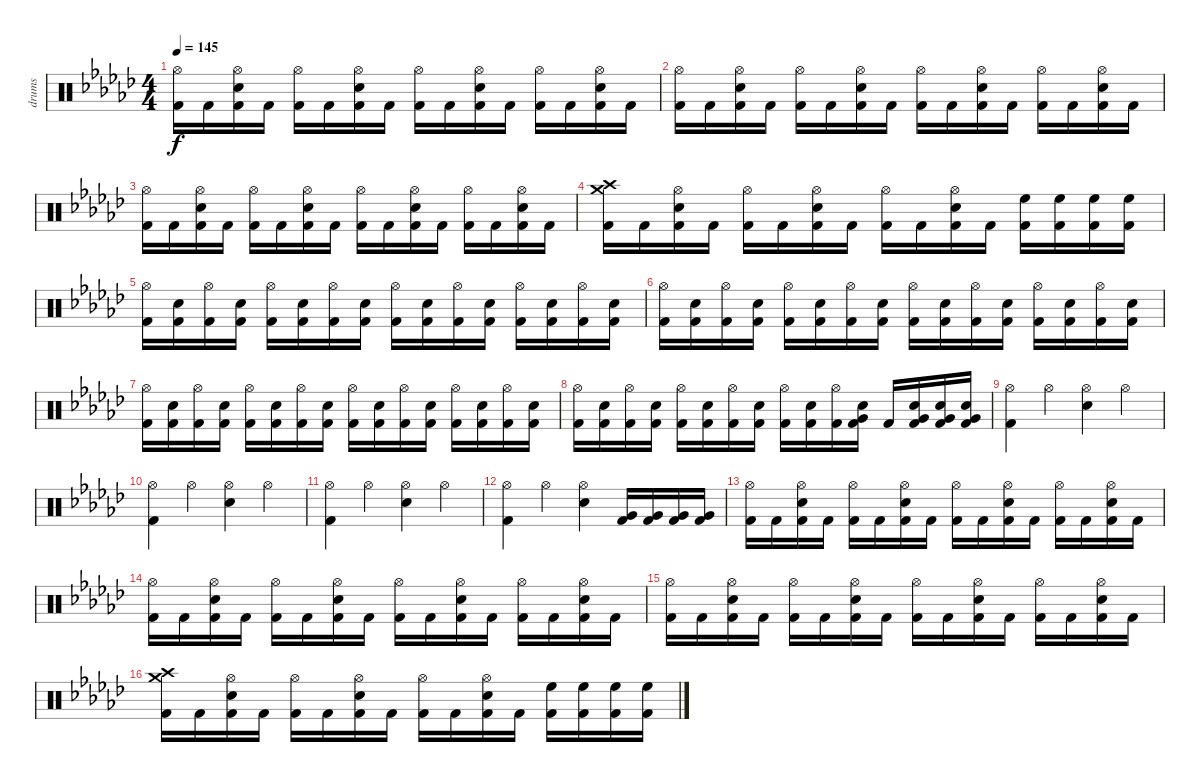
\track ("drums" "drums") {instrument percussion}
\staff {score}
\articulation defaults
\ts (4 4)
\tempo 145
\clef neutral
\ks gb
("Hi-Hat (open)" "Kick (hit) 2").16{dy f} "Kick (hit) 2".16 ("Hi-Hat (open)" "Electric Snare (hit)" "Kick (hit) 2").16 "Kick (hit) 2".16 ("Hi-Hat (open)" "Kick (hit) 2").16 "Kick (hit) 2".16 ("Hi-Hat (open)" "Electric Snare (hit)" "Kick (hit) 2").16 "Kick (hit) 2".16 ("Hi-Hat (open)" "Kick (hit) 2").16 "Kick (hit) 2".16 ("Hi-Hat (open)" "Electric Snare (hit)" "Kick (hit) 2").16 "Kick (hit) 2".16 ("Hi-Hat (open)" "Kick (hit) 2").16 "Kick (hit) 2".16 ("Hi-Hat (open)" "Electric Snare (hit)" "Kick (hit) 2").16 "Kick (hit) 2".16 |
("Hi-Hat (open)" "Kick (hit) 2").16 "Kick (hit) 2".16 ("Hi-Hat (open)" "Electric Snare (hit)" "Kick (hit) 2").16 "Kick (hit) 2".16 ("Hi-Hat (open)" "Kick (hit) 2").16 "Kick (hit) 2".16 ("Hi-Hat (open)" "Electric Snare (hit)" "Kick (hit) 2").16 "Kick (hit) 2".16 ("Hi-Hat (open)" "Kick (hit) 2").16 "Kick (hit) 2".16 ("Hi-Hat (open)" "Electric Snare (hit)" "Kick (hit) 2").16 "Kick (hit) 2".16 ("Hi-Hat (open)" "Kick (hit) 2").16 "Kick (hit) 2".16 ("Hi-Hat (open)" "Electric Snare (hit)" "Kick (hit) 2").16 "Kick (hit) 2".16 |
("Hi-Hat (open)" "Kick (hit) 2").16 "Kick (hit) 2".16 ("Hi-Hat (open)" "Electric Snare (hit)" "Kick (hit) 2").16 "Kick (hit) 2".16 ("Hi-Hat (open)" "Kick (hit) 2").16 "Kick (hit) 2".16 ("Hi-Hat (open)" "Electric Snare (hit)" "Kick (hit) 2").16 "Kick (hit) 2".16 ("Hi-Hat (open)" "Kick (hit) 2").16 "Kick (hit) 2".16 ("Hi-Hat (open)" "Electric Snare (hit)" "Kick (hit) 2").16 "Kick (hit) 2".16 ("Hi-Hat (open)" "Kick (hit) 2").16 "Kick (hit) 2".16 ("Hi-Hat (open)" "Electric Snare (hit)" "Kick (hit) 2").16 "Kick (hit) 2".16 |
("Crash high (hit)" "Crash medium (hit)" "Kick (hit) 2").16 "Kick (hit) 2".16 ("Hi-Hat (open)" "Electric Snare (hit)" "Kick (hit) 2").16 "Kick (hit) 2".16 ("Hi-Hat (open)" "Kick (hit) 2").16 "Kick (hit) 2".16 ("Hi-Hat (open)" "Electric Snare (hit)" "Kick (hit) 2").16 "Kick (hit) 2".16 ("Hi-Hat (open)" "Kick (hit) 2").16 "Kick (hit) 2".16 ("Hi-Hat (open)" "Electric Snare (hit)" "Kick (hit) 2").16 "Kick (hit) 2".16 ("High Floor Tom (hit)" "Kick (hit) 2").16 ("High Floor Tom (hit)" "Kick (hit) 2").16 ("High Floor Tom (hit)" "Kick (hit) 2").16 ("High Floor Tom (hit)" "Kick (hit) 2").16 |
("Hi-Hat (open)" "Kick (hit) 2").16 ("Electric Snare (hit)" "Kick (hit) 2").16 ("Hi-Hat (open)" "Kick (hit) 2").16 ("Electric Snare (hit)" "Kick (hit) 2").16 ("Hi-Hat (open)" "Kick (hit) 2").16 ("Electric Snare (hit)" "Kick (hit) 2").16 ("Hi-Hat (open)" "Kick (hit) 2").16 ("Electric Snare (hit)" "Kick (hit) 2").16 ("Hi-Hat (open)" "Kick (hit) 2").16 ("Electric Snare (hit)" "Kick (hit) 2").16 ("Hi-Hat (open)" "Kick (hit) 2").16 ("Electric Snare (hit)" "Kick (hit) 2").16 ("Hi-Hat (open)" "Kick (hit) 2").16 ("Electric Snare (hit)" "Kick (hit) 2").16 ("Hi-Hat (open)" "Kick (hit) 2").16 ("Electric Snare (hit)" "Kick (hit) 2").16 |
("Hi-Hat (open)" "Kick (hit) 2").16 ("Electric Snare (hit)" "Kick (hit) 2").16 ("Hi-Hat (open)" "Kick (hit) 2").16 ("Electric Snare (hit)" "Kick (hit) 2").16 ("Hi-Hat (open)" "Kick (hit) 2").16 ("Electric Snare (hit)" "Kick (hit) 2").16 ("Hi-Hat (open)" "Kick (hit) 2").16 ("Electric Snare (hit)" "Kick (hit) 2").16 ("Hi-Hat (open)" "Kick (hit) 2").16 ("Electric Snare (hit)" "Kick (hit) 2").16 ("Hi-Hat (open)" "Kick (hit) 2").16 ("Electric Snare (hit)" "Kick (hit) 2").16 ("Hi-Hat (open)" "Kick (hit) 2").16 ("Electric Snare (hit)" "Kick (hit) 2").16 ("Hi-Hat (open)" "Kick (hit) 2").16 ("Electric Snare (hit)" "Kick (hit) 2").16 |
("Hi-Hat (open)" "Kick (hit) 2").16 ("Electric Snare (hit)" "Kick (hit) 2").16 ("Hi-Hat (open)" "Kick (hit) 2").16 ("Electric Snare (hit)" "Kick (hit) 2").16 ("Hi-Hat (open)" "Kick (hit) 2").16 ("Electric Snare (hit)" "Kick (hit) 2").16 ("Hi-Hat (open)" "Kick (hit) 2").16 ("Electric Snare (hit)" "Kick (hit) 2").16 ("Hi-Hat (open)" "Kick (hit) 2").16 ("Electric Snare (hit)" "Kick (hit) 2").16 ("Hi-Hat (open)" "Kick (hit) 2").16 ("Electric Snare (hit)" "Kick (hit) 2").16 ("Hi-Hat (open)" "Kick (hit) 2").16 ("Electric Snare (hit)" "Kick (hit) 2").16 ("Hi-Hat (open)" "Kick (hit) 2").16 ("Electric Snare (hit)" "Kick (hit) 2").16 |
("Hi-Hat (open)" "Kick (hit) 2").16 ("Electric Snare (hit)" "Kick (hit) 2").16 ("Hi-Hat (open)" "Kick (hit) 2").16 ("Electric Snare (hit)" "Kick (hit) 2").16 ("Hi-Hat (open)" "Kick (hit) 2").16 ("Electric Snare (hit)" "Kick (hit) 2").16 ("Hi-Hat (open)" "Kick (hit) 2").16 ("Electric Snare (hit)" "Kick (hit) 2").16 ("Hi-Hat (open)" "Kick (hit) 2").16 ("Electric Snare (hit)" "Kick (hit) 2").16 ("Hi-Hat (open)" "Kick (hit) 2").16 ("Electric Snare (hit)" "Very Low Tom (hit)" "Kick (hit) 2").16 "Kick (hit) 2".16 ("Electric Snare (hit)" "Very Low Tom (hit)" "Kick (hit) 2").16 ("Electric Snare (hit)" "Very Low Tom (hit)" "Kick (hit) 2").16 ("Electric Snare (hit)" "Very Low Tom (hit)" "Kick (hit) 2").16 |
("Hi-Hat (open)" "Kick (hit) 2").4 "Hi-Hat (open)".4 ("Hi-Hat (open)" "Electric Snare (hit)").4 "Hi-Hat (open)".4 |
("Hi-Hat (open)" "Kick (hit) 2").4 "Hi-Hat (open)".4 ("Hi-Hat (open)" "Electric Snare (hit)").4 "Hi-Hat (open)".4 |
("Hi-Hat (open)" "Kick (hit) 2").4 "Hi-Hat (open)".4 ("Hi-Hat (open)" "Electric Snare (hit)").4 "Hi-Hat (open)".4 |
("Hi-Hat (open)" "Kick (hit) 2").4 "Hi-Hat (open)".4 ("Hi-Hat (open)" "Electric Snare (hit)").4 ("Very Low Tom (hit)" "Kick (hit) 2").16 ("Very Low Tom (hit)" "Kick (hit) 2").16 ("Very Low Tom (hit)" "Kick (hit) 2").16 ("Very Low Tom (hit)" "Kick (hit) 2").16 |
("Hi-Hat (open)" "Kick (hit) 2").16 "Kick (hit) 2".16 ("Hi-Hat (open)" "Electric Snare (hit)" "Kick (hit) 2").16 "Kick (hit) 2".16 ("Hi-Hat (open)" "Kick (hit) 2").16 "Kick (hit) 2".16 ("Hi-Hat (open)" "Electric Snare (hit)" "Kick (hit) 2").16 "Kick (hit) 2".16 ("Hi-Hat (open)" "Kick (hit) 2").16 "Kick (hit) 2".16 ("Hi-Hat (open)" "Electric Snare (hit)" "Kick (hit) 2").16 "Kick (hit) 2".16 ("Hi-Hat (open)" "Kick (hit) 2").16 "Kick (hit) 2".16 ("Hi-Hat (open)" "Electric Snare (hit)" "Kick (hit) 2").16 "Kick (hit) 2".16 |
("Hi-Hat (open)" "Kick (hit) 2").16 "Kick (hit) 2".16 ("Hi-Hat (open)" "Electric Snare (hit)" "Kick (hit) 2").16 "Kick (hit) 2".16 ("Hi-Hat (open)" "Kick (hit) 2").16 "Kick (hit) 2".16 ("Hi-Hat (open)" "Electric Snare (hit)" "Kick (hit) 2").16 "Kick (hit) 2".16 ("Hi-Hat (open)" "Kick (hit) 2").16 "Kick (hit) 2".16 ("Hi-Hat (open)" "Electric Snare (hit)" "Kick (hit) 2").16 "Kick (hit) 2".16 ("Hi-Hat (open)" "Kick (hit) 2").16 "Kick (hit) 2".16 ("Hi-Hat (open)" "Electric Snare (hit)" "Kick (hit) 2").16 "Kick (hit) 2".16 |
("Hi-Hat (open)" "Kick (hit) 2").16 "Kick (hit) 2".16 ("Hi-Hat (open)" "Electric Snare (hit)" "Kick (hit) 2").16 "Kick (hit) 2".16 ("Hi-Hat (open)" "Kick (hit) 2").16 "Kick (hit) 2".16 ("Hi-Hat (open)" "Electric Snare (hit)" "Kick (hit) 2").16 "Kick (hit) 2".16 ("Hi-Hat (open)" "Kick (hit) 2").16 "Kick (hit) 2".16 ("Hi-Hat (open)" "Electric Snare (hit)" "Kick (hit) 2").16 "Kick (hit) 2".16 ("Hi-Hat (open)" "Kick (hit) 2").16 "Kick (hit) 2".16 ("Hi-Hat (open)" "Electric Snare (hit)" "Kick (hit) 2").16 "Kick (hit) 2".16 |
("Crash high (hit)" "Crash medium (hit)" "Kick (hit) 2").16 "Kick (hit) 2".16 ("Hi-Hat (open)" "Electric Snare (hit)" "Kick (hit) 2").16 "Kick (hit) 2".16 ("Hi-Hat (open)" "Kick (hit) 2").16 "Kick (hit) 2".16 ("Hi-Hat (open)" "Electric Snare (hit)" "Kick (hit) 2").16 "Kick (hit) 2".16 ("Hi-Hat (open)" "Kick (hit) 2").16 "Kick (hit) 2".16 ("Hi-Hat (open)" "Electric Snare (hit)" "Kick (hit) 2").16 "Kick (hit) 2".16 ("High Floor Tom (hit)" "Kick (hit) 2").16 ("High Floor Tom (hit)" "Kick (hit) 2").16 ("High Floor Tom (hit)" "Kick (hit) 2").16 ("High Floor Tom (hit)" "Kick (hit) 2").16
